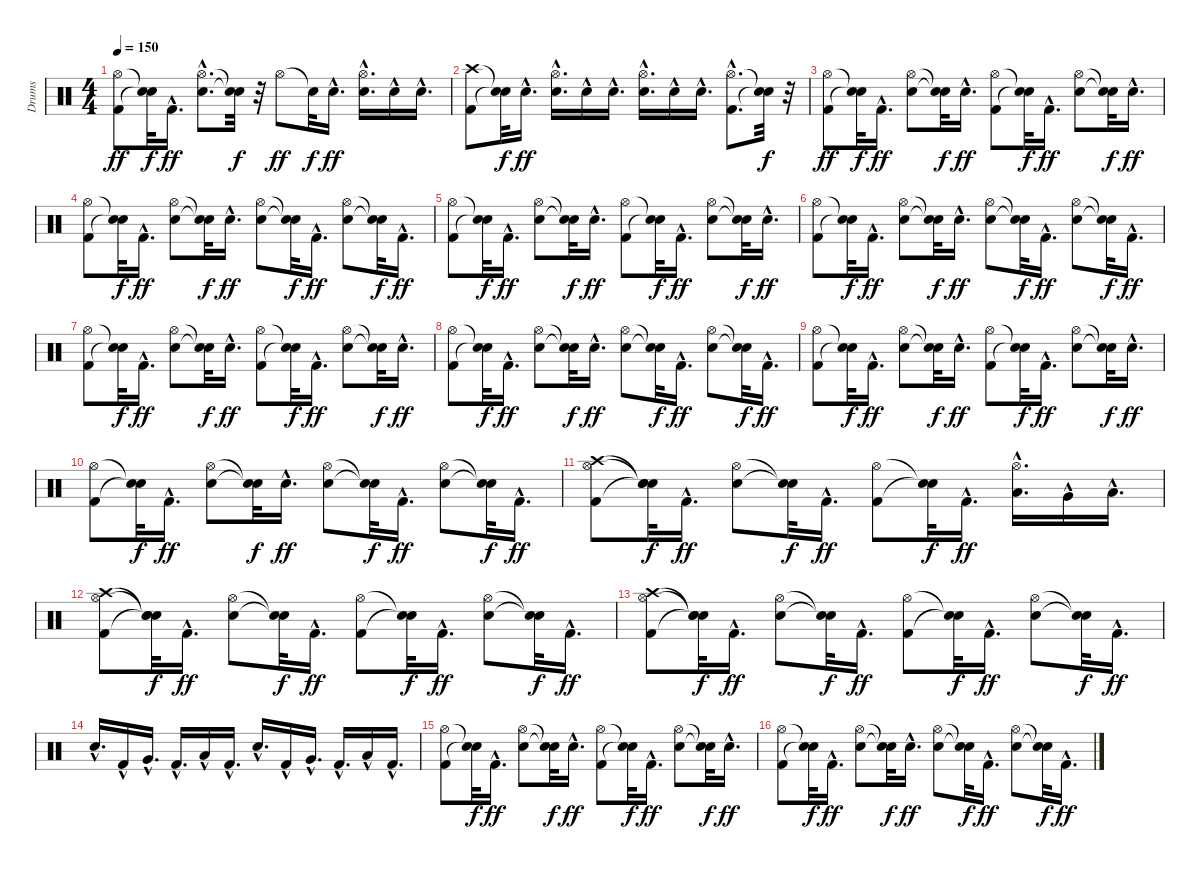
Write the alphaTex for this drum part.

\track ("Drums" "Drums") {instrument percussion}
\staff {score}
\articulation defaults
\ts (4 4)
\tempo 150
\clef neutral
\ks c
("Kick (hit) 2" "Hi-Hat (open)").8{dy ff} ("Snare (hit)"{t} "Snare (hit)"{t}).32{dy f} "Kick (hit) 2"{hac}.16{d dy ff} ("Snare (hit) 2"{hac} "Hi-Hat (open)"{hac}).8{d} ("Snare (hit)"{t} "Snare (hit)"{t}).32{dy f} r.32 "Hi-Hat (open)".8{dy ff} "Snare (hit)"{t}.32{dy f} "Snare (hit) 2"{hac}.16{d dy ff} ("Snare (hit) 2"{hac} "Hi-Hat (open)"{hac}).16{d} "Snare (hit) 2"{hac}.16 "Snare (hit) 2"{hac}.16{d} |
("Kick (hit) 2" "Crash high (hit)").8 ("Snare (hit)"{t} "Snare (hit)"{t}).32{dy f} "Snare (hit) 2"{hac}.16{d dy ff} ("Snare (hit) 2"{hac} "Hi-Hat (open)"{hac}).16{d} "Snare (hit) 2"{hac}.16 "Snare (hit) 2"{hac}.16{d} ("Snare (hit) 2"{hac} "Hi-Hat (open)"{hac}).16{d} "Snare (hit) 2"{hac}.16 "Snare (hit) 2"{hac}.16{d} ("Kick (hit) 2"{hac} "Hi-Hat (open)"{hac}).8{d} ("Snare (hit)"{t} "Snare (hit)"{t}).32{dy f} r.32 |
("Kick (hit) 2" "Hi-Hat (open)").8{dy ff} ("Snare (hit)"{t} "Snare (hit)"{t}).32{dy f} "Kick (hit) 2"{hac}.16{d dy ff} ("Snare (hit) 2" "Hi-Hat (open)").8 ("Snare (hit)"{t} "Snare (hit)"{t}).32{dy f} "Snare (hit) 2"{hac}.16{d dy ff} ("Kick (hit) 2" "Hi-Hat (open)").8 ("Snare (hit)"{t} "Snare (hit)"{t}).32{dy f} "Kick (hit) 2"{hac}.16{d dy ff} ("Snare (hit) 2" "Hi-Hat (open)").8 ("Snare (hit)"{t} "Snare (hit)"{t}).32{dy f} "Snare (hit) 2"{hac}.16{d dy ff} |
("Kick (hit) 2" "Hi-Hat (open)").8 ("Snare (hit)"{t} "Snare (hit)"{t}).32{dy f} "Kick (hit) 2"{hac}.16{d dy ff} ("Snare (hit) 2" "Hi-Hat (open)").8 ("Snare (hit)"{t} "Snare (hit)"{t}).32{dy f} "Snare (hit) 2"{hac}.16{d dy ff} ("Snare (hit) 2" "Hi-Hat (open)").8 ("Snare (hit)"{t} "Snare (hit)"{t}).32{dy f} "Kick (hit) 2"{hac}.16{d dy ff} ("Snare (hit) 2" "Hi-Hat (open)").8 ("Snare (hit)"{t} "Snare (hit)"{t}).32{dy f} "Kick (hit) 2"{hac}.16{d dy ff} |
("Kick (hit) 2" "Hi-Hat (open)").8 ("Snare (hit)"{t} "Snare (hit)"{t}).32{dy f} "Kick (hit) 2"{hac}.16{d dy ff} ("Snare (hit) 2" "Hi-Hat (open)").8 ("Snare (hit)"{t} "Snare (hit)"{t}).32{dy f} "Snare (hit) 2"{hac}.16{d dy ff} ("Kick (hit) 2" "Hi-Hat (open)").8 ("Snare (hit)"{t} "Snare (hit)"{t}).32{dy f} "Kick (hit) 2"{hac}.16{d dy ff} ("Snare (hit) 2" "Hi-Hat (open)").8 ("Snare (hit)"{t} "Snare (hit)"{t}).32{dy f} "Snare (hit) 2"{hac}.16{d dy ff} |
("Kick (hit) 2" "Hi-Hat (open)").8 ("Snare (hit)"{t} "Snare (hit)"{t}).32{dy f} "Kick (hit) 2"{hac}.16{d dy ff} ("Snare (hit) 2" "Hi-Hat (open)").8 ("Snare (hit)"{t} "Snare (hit)"{t}).32{dy f} "Snare (hit) 2"{hac}.16{d dy ff} ("Snare (hit) 2" "Hi-Hat (open)").8 ("Snare (hit)"{t} "Snare (hit)"{t}).32{dy f} "Kick (hit) 2"{hac}.16{d dy ff} ("Snare (hit) 2" "Hi-Hat (open)").8 ("Snare (hit)"{t} "Snare (hit)"{t}).32{dy f} "Kick (hit) 2"{hac}.16{d dy ff} |
("Kick (hit) 2" "Hi-Hat (open)").8 ("Snare (hit)"{t} "Snare (hit)"{t}).32{dy f} "Kick (hit) 2"{hac}.16{d dy ff} ("Snare (hit) 2" "Hi-Hat (open)").8 ("Snare (hit)"{t} "Snare (hit)"{t}).32{dy f} "Snare (hit) 2"{hac}.16{d dy ff} ("Kick (hit) 2" "Hi-Hat (open)").8 ("Snare (hit)"{t} "Snare (hit)"{t}).32{dy f} "Kick (hit) 2"{hac}.16{d dy ff} ("Snare (hit) 2" "Hi-Hat (open)").8 ("Snare (hit)"{t} "Snare (hit)"{t}).32{dy f} "Snare (hit) 2"{hac}.16{d dy ff} |
("Kick (hit) 2" "Hi-Hat (open)").8 ("Snare (hit)"{t} "Snare (hit)"{t}).32{dy f} "Kick (hit) 2"{hac}.16{d dy ff} ("Snare (hit) 2" "Hi-Hat (open)").8 ("Snare (hit)"{t} "Snare (hit)"{t}).32{dy f} "Snare (hit) 2"{hac}.16{d dy ff} ("Snare (hit) 2" "Hi-Hat (open)").8 ("Snare (hit)"{t} "Snare (hit)"{t}).32{dy f} "Kick (hit) 2"{hac}.16{d dy ff} ("Snare (hit) 2" "Hi-Hat (open)").8 ("Snare (hit)"{t} "Snare (hit)"{t}).32{dy f} "Kick (hit) 2"{hac}.16{d dy ff} |
("Kick (hit) 2" "Hi-Hat (open)").8 ("Snare (hit)"{t} "Snare (hit)"{t}).32{dy f} "Kick (hit) 2"{hac}.16{d dy ff} ("Snare (hit) 2" "Hi-Hat (open)").8 ("Snare (hit)"{t} "Snare (hit)"{t}).32{dy f} "Snare (hit) 2"{hac}.16{d dy ff} ("Kick (hit) 2" "Hi-Hat (open)").8 ("Snare (hit)"{t} "Snare (hit)"{t}).32{dy f} "Kick (hit) 2"{hac}.16{d dy ff} ("Snare (hit) 2" "Hi-Hat (open)").8 ("Snare (hit)"{t} "Snare (hit)"{t}).32{dy f} "Snare (hit) 2"{hac}.16{d dy ff} |
("Kick (hit) 2" "Hi-Hat (open)").8 ("Snare (hit)"{t} "Snare (hit)"{t}).32{dy f} "Kick (hit) 2"{hac}.16{d dy ff} ("Snare (hit) 2" "Hi-Hat (open)").8 ("Snare (hit)"{t} "Snare (hit)"{t}).32{dy f} "Snare (hit) 2"{hac}.16{d dy ff} ("Snare (hit) 2" "Hi-Hat (open)").8 ("Snare (hit)"{t} "Snare (hit)"{t}).32{dy f} "Kick (hit) 2"{hac}.16{d dy ff} ("Snare (hit) 2" "Hi-Hat (open)").8 ("Snare (hit)"{t} "Snare (hit)"{t}).32{dy f} "Kick (hit) 2"{hac}.16{d dy ff} |
("Kick (hit) 2" "Hi-Hat (open)" "Crash high (hit)").8 ("Snare (hit)"{t} "Snare (hit)"{t} "Snare (hit)"{t}).32{dy f} "Kick (hit) 2"{hac}.16{d dy ff} ("Snare (hit) 2" "Hi-Hat (open)").8 ("Snare (hit)"{t} "Snare (hit)"{t}).32{dy f} "Kick (hit) 2"{hac}.16{d dy ff} ("Kick (hit) 2" "Hi-Hat (open)").8 ("Snare (hit)"{t} "Snare (hit)"{t}).32{dy f} "Kick (hit) 2"{hac}.16{d dy ff} ("Low Tom (hit)"{hac} "Hi-Hat (open)"{hac}).16{d} "Very Low Tom (hit)"{hac}.16 "Low Floor Tom (hit)"{hac}.16{d} |
("Kick (hit) 2" "Hi-Hat (open)" "Crash high (hit)").8 ("Snare (hit)"{t} "Snare (hit)"{t} "Snare (hit)"{t}).32{dy f} "Kick (hit) 2"{hac}.16{d dy ff} ("Snare (hit) 2" "Hi-Hat (open)").8 ("Snare (hit)"{t} "Snare (hit)"{t}).32{dy f} "Kick (hit) 2"{hac}.16{d dy ff} ("Kick (hit) 2" "Hi-Hat (open)").8 ("Snare (hit)"{t} "Snare (hit)"{t}).32{dy f} "Kick (hit) 2"{hac}.16{d dy ff} ("Snare (hit) 2" "Hi-Hat (open)").8 ("Snare (hit)"{t} "Snare (hit)"{t}).32{dy f} "Kick (hit) 2"{hac}.16{d dy ff} |
("Kick (hit) 2" "Hi-Hat (open)" "Crash high (hit)").8 ("Snare (hit)"{t} "Snare (hit)"{t} "Snare (hit)"{t}).32{dy f} "Kick (hit) 2"{hac}.16{d dy ff} ("Snare (hit) 2" "Hi-Hat (open)").8 ("Snare (hit)"{t} "Snare (hit)"{t}).32{dy f} "Kick (hit) 2"{hac}.16{d dy ff} ("Kick (hit) 2" "Hi-Hat (open)").8 ("Snare (hit)"{t} "Snare (hit)"{t}).32{dy f} "Kick (hit) 2"{hac}.16{d dy ff} ("Snare (hit) 2" "Hi-Hat (open)").8 ("Snare (hit)"{t} "Snare (hit)"{t}).32{dy f} "Kick (hit) 2"{hac}.16{d dy ff} |
"Snare (hit) 2"{hac}.16{d} "Kick (hit) 2"{hac}.16 "Very Low Tom (hit)"{hac}.16{d} "Kick (hit) 2"{hac}.16{d} "Low Floor Tom (hit)"{hac}.16 "Kick (hit) 2"{hac}.16{d} "Snare (hit) 2"{hac}.16{d} "Kick (hit) 2"{hac}.16 "Very Low Tom (hit)"{hac}.16{d} "Kick (hit) 2"{hac}.16{d} "Low Floor Tom (hit)"{hac}.16 "Kick (hit) 2"{hac}.16{d} |
("Kick (hit) 2" "Hi-Hat (open)").8 ("Snare (hit)"{t} "Snare (hit)"{t}).32{dy f} "Kick (hit) 2"{hac}.16{d dy ff} ("Snare (hit) 2" "Hi-Hat (open)").8 ("Snare (hit)"{t} "Snare (hit)"{t}).32{dy f} "Snare (hit) 2"{hac}.16{d dy ff} ("Kick (hit) 2" "Hi-Hat (open)").8 ("Snare (hit)"{t} "Snare (hit)"{t}).32{dy f} "Kick (hit) 2"{hac}.16{d dy ff} ("Snare (hit) 2" "Hi-Hat (open)").8 ("Snare (hit)"{t} "Snare (hit)"{t}).32{dy f} "Snare (hit) 2"{hac}.16{d dy ff} |
("Kick (hit) 2" "Hi-Hat (open)").8 ("Snare (hit)"{t} "Snare (hit)"{t}).32{dy f} "Kick (hit) 2"{hac}.16{d dy ff} ("Snare (hit) 2" "Hi-Hat (open)").8 ("Snare (hit)"{t} "Snare (hit)"{t}).32{dy f} "Snare (hit) 2"{hac}.16{d dy ff} ("Snare (hit) 2" "Hi-Hat (open)").8 ("Snare (hit)"{t} "Snare (hit)"{t}).32{dy f} "Kick (hit) 2"{hac}.16{d dy ff} ("Snare (hit) 2" "Hi-Hat (open)").8 ("Snare (hit)"{t} "Snare (hit)"{t}).32{dy f} "Kick (hit) 2"{hac}.16{d dy ff}
